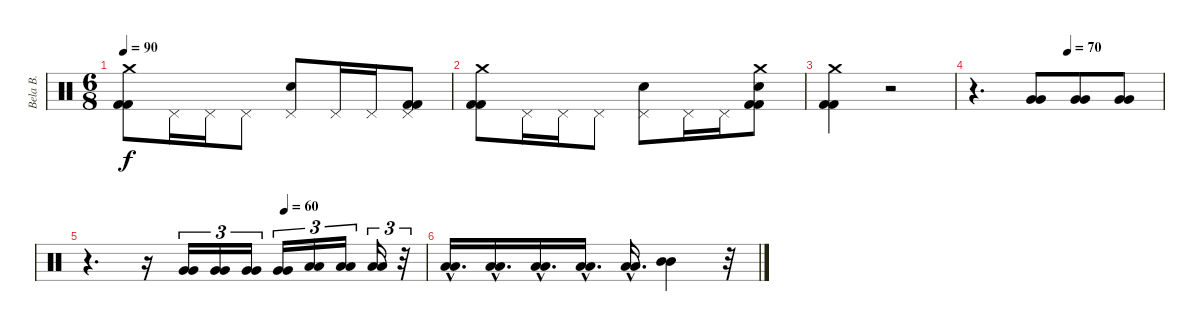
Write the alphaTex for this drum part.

\track ("Bela B." "Bela B.") {instrument percussion}
\staff {score}
\articulation defaults
\ts (6 8)
\tempo 90
\clef neutral
\ks aminor
("Crash medium (hit)" "Kick (hit) 2" "Kick (hit) 2").8{dy f} "Pedal Hi-Hat (hit)".16 "Pedal Hi-Hat (hit)".16 "Pedal Hi-Hat (hit)".8 ("Pedal Hi-Hat (hit)" "Snare (hit) 2").8 "Pedal Hi-Hat (hit)".16 "Pedal Hi-Hat (hit)".16 ("Pedal Hi-Hat (hit)" "Kick (hit) 2" "Kick (hit) 2").8 |
("Crash medium (hit)" "Kick (hit) 2" "Kick (hit) 2").8 "Pedal Hi-Hat (hit)".16 "Pedal Hi-Hat (hit)".16 "Pedal Hi-Hat (hit)".8 ("Pedal Hi-Hat (hit)" "Snare (hit) 2").8 "Pedal Hi-Hat (hit)".16 "Pedal Hi-Hat (hit)".16 ("Crash medium (hit)" "Snare (hit) 2" "Kick (hit) 2" "Kick (hit) 2").8 |
("Crash medium (hit)" "Kick (hit) 2" "Kick (hit) 2").4 r.2 |
\tempo (70 0.5)
r.4{d} ("Very Low Tom (hit)" "Very Low Tom (hit)").8 ("Very Low Tom (hit)" "Very Low Tom (hit)").8 ("Very Low Tom (hit)" "Very Low Tom (hit)").8 |
\tempo (60 0.5833333333333334)
r.4{d} r.16 ("Very Low Tom (hit)" "Very Low Tom (hit)").16{tu (3 2)} ("Very Low Tom (hit)" "Very Low Tom (hit)").16{tu (3 2)} ("Very Low Tom (hit)" "Very Low Tom (hit)").16{tu (3 2)} ("Very Low Tom (hit)" "Very Low Tom (hit)").16{tu (3 2)} ("Low Tom (hit)" "Low Tom (hit)").16{tu (3 2)} ("Low Tom (hit)" "Low Tom (hit)").16{tu (3 2)} ("Low Tom (hit)" "Low Tom (hit)").16{tu (3 2)} r.32{tu (3 2)} |
("Low Tom (hit)"{hac} "Low Tom (hit)"{hac}).16{d} ("Low Tom (hit)"{hac} "Low Tom (hit)"{hac}).16{d} ("Low Tom (hit)"{hac} "Low Tom (hit)"{hac}).16{d} ("Low Tom (hit)"{hac} "Low Tom (hit)"{hac}).16{d} ("Low Tom (hit)"{hac} "Low Tom (hit)"{hac}).16{d} ("Mid Tom (hit)" "Mid Tom (hit)").4 r.32
